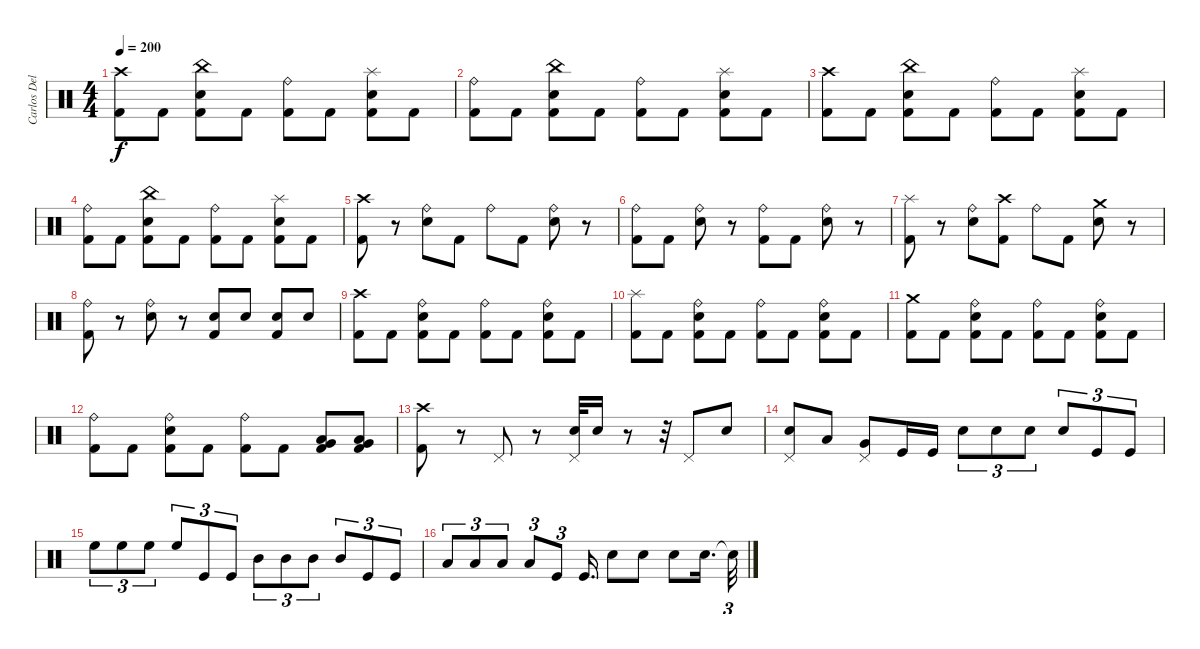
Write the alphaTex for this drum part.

\track ("Carlos Delgado" "Carlos Del") {instrument percussion}
\staff {score}
\articulation defaults
\ts (4 4)
\tempo 200
\clef neutral
\ks c
("Kick (hit) 2" "Crash high (hit)").8{dy f} "Kick (hit) 2".8 ("Kick (hit) 2" "Electric Snare (hit)" "China (hit)").8 "Kick (hit) 2".8 ("Ride (bell)" "Kick (hit) 2").8 "Kick (hit) 2".8 ("Kick (hit) 2" "Electric Snare (hit)" "Splash (hit)").8 "Kick (hit) 2".8 |
("Ride (bell)" "Kick (hit) 2").8 "Kick (hit) 2".8 ("Electric Snare (hit)" "China (hit)" "Kick (hit) 2").8 "Kick (hit) 2".8 ("Ride (bell)" "Kick (hit) 2").8 "Kick (hit) 2".8 ("Electric Snare (hit)" "Kick (hit) 2" "Splash (hit)").8 "Kick (hit) 2".8 |
("Kick (hit) 2" "Crash high (hit)").8 "Kick (hit) 2".8 ("Electric Snare (hit)" "China (hit)" "Kick (hit) 2").8 "Kick (hit) 2".8 ("Ride (bell)" "Kick (hit) 2").8 "Kick (hit) 2".8 ("Kick (hit) 2" "Electric Snare (hit)" "Splash (hit)").8 "Kick (hit) 2".8 |
("Ride (bell)" "Kick (hit) 2").8 "Kick (hit) 2".8 ("China (hit)" "Kick (hit) 2" "Electric Snare (hit)").8 "Kick (hit) 2".8 ("Kick (hit) 2" "Ride (bell)").8 "Kick (hit) 2".8 ("Electric Snare (hit)" "Splash (hit)" "Kick (hit) 2").8 "Kick (hit) 2".8 |
("Crash high (hit)" "Kick (hit) 2").8 r.8 ("Electric Snare (hit)" "Ride (bell)").8 "Kick (hit) 2".8 "Ride (bell)".8 "Kick (hit) 2".8 ("Ride (bell)" "Electric Snare (hit)").8 r.8 |
("Ride (bell)" "Kick (hit) 2").8 "Kick (hit) 2".8 ("Electric Snare (hit)" "Ride (bell)").8 r.8 ("Ride (bell)" "Kick (hit) 2").8 "Kick (hit) 2".8 ("Ride (bell)" "Electric Snare (hit)").8 r.8 |
("Splash (hit)" "Kick (hit) 2").8 r.8 ("Ride (bell)" "Electric Snare (hit)").8 ("Crash high (hit)" "Kick (hit) 2").8 "Ride (bell)".8 "Kick (hit) 2".8 ("Electric Snare (hit)" "Crash medium (hit)").8 r.8 |
("Ride (bell)" "Kick (hit) 2").8 r.8 ("Ride (bell)" "Electric Snare (hit)").8 r.8 ("Electric Snare (hit)" "Kick (hit) 2").8 "Electric Snare (hit)".8 ("Electric Snare (hit)" "Kick (hit) 2").8 "Electric Snare (hit)".8 |
("Crash high (hit)" "Kick (hit) 2").8 "Kick (hit) 2".8 ("Kick (hit) 2" "Ride (bell)" "Electric Snare (hit)").8 "Kick (hit) 2".8 ("Kick (hit) 2" "Ride (bell)").8 "Kick (hit) 2".8 ("Kick (hit) 2" "Electric Snare (hit)" "Ride (bell)").8 "Kick (hit) 2".8 |
("Splash (hit)" "Kick (hit) 2").8 "Kick (hit) 2".8 ("Kick (hit) 2" "Ride (bell)" "Electric Snare (hit)").8 "Kick (hit) 2".8 ("Ride (bell)" "Kick (hit) 2").8 "Kick (hit) 2".8 ("Kick (hit) 2" "Ride (bell)" "Electric Snare (hit)").8 "Kick (hit) 2".8 |
("Crash medium (hit)" "Kick (hit) 2").8 "Kick (hit) 2".8 ("Kick (hit) 2" "Ride (bell)" "Electric Snare (hit)").8 "Kick (hit) 2".8 ("Kick (hit) 2" "Ride (bell)").8 "Kick (hit) 2".8 ("Kick (hit) 2" "Electric Snare (hit)" "Ride (bell)").8 "Kick (hit) 2".8 |
("Ride (bell)" "Kick (hit) 2").8 "Kick (hit) 2".8 ("Kick (hit) 2" "Ride (bell)" "Electric Snare (hit)").8 "Kick (hit) 2".8 ("Ride (bell)" "Kick (hit) 2").8 "Kick (hit) 2".8 ("Very Low Tom (hit)" "Kick (hit) 2" "Low Tom (hit)").8 ("Very Low Tom (hit)" "Kick (hit) 2" "Low Floor Tom (hit)").8 |
("Crash high (hit)" "Kick (hit) 2").8 r.8 "Pedal Hi-Hat (hit)".8 r.8 ("Pedal Hi-Hat (hit)" "Electric Snare (hit)").32 "Electric Snare (hit)".16 r.8 r.32 "Pedal Hi-Hat (hit)".8 "Electric Snare (hit)".8 |
("Pedal Hi-Hat (hit)" "Electric Snare (hit)").8 "Low Tom (hit)".8 ("Pedal Hi-Hat (hit)" "Very Low Tom (hit)").8 "Kick (hit)".16 "Kick (hit)".16 "Electric Snare (hit)".8{tu (3 2)} "Electric Snare (hit)".8{tu (3 2)} "Electric Snare (hit)".8{tu (3 2)} "Electric Snare (hit)".8{tu (3 2)} "Kick (hit)".8{tu (3 2)} "Kick (hit)".8{tu (3 2)} |
"High Floor Tom (hit)".8{tu (3 2)} "High Floor Tom (hit)".8{tu (3 2)} "High Floor Tom (hit)".8{tu (3 2)} "High Floor Tom (hit)".8{tu (3 2)} "Kick (hit)".8{tu (3 2)} "Kick (hit)".8{tu (3 2)} "Mid Tom (hit)".8{tu (3 2)} "Mid Tom (hit)".8{tu (3 2)} "Mid Tom (hit)".8{tu (3 2)} "Mid Tom (hit)".8{tu (3 2)} "Kick (hit)".8{tu (3 2)} "Kick (hit)".8{tu (3 2)} |
"Low Tom (hit)".8{tu (3 2)} "Low Tom (hit)".8{tu (3 2)} "Low Tom (hit)".8{tu (3 2)} "Low Tom (hit)".8{tu (3 2)} "Kick (hit)".8{tu (3 2)} "Kick (hit)".16{d} "Electric Snare (hit)".8 "Electric Snare (hit)".8 "Electric Snare (hit)".8 "Electric Snare (hit)".16{d} "Snare (hit)"{t}.32{tu (3 2)}
